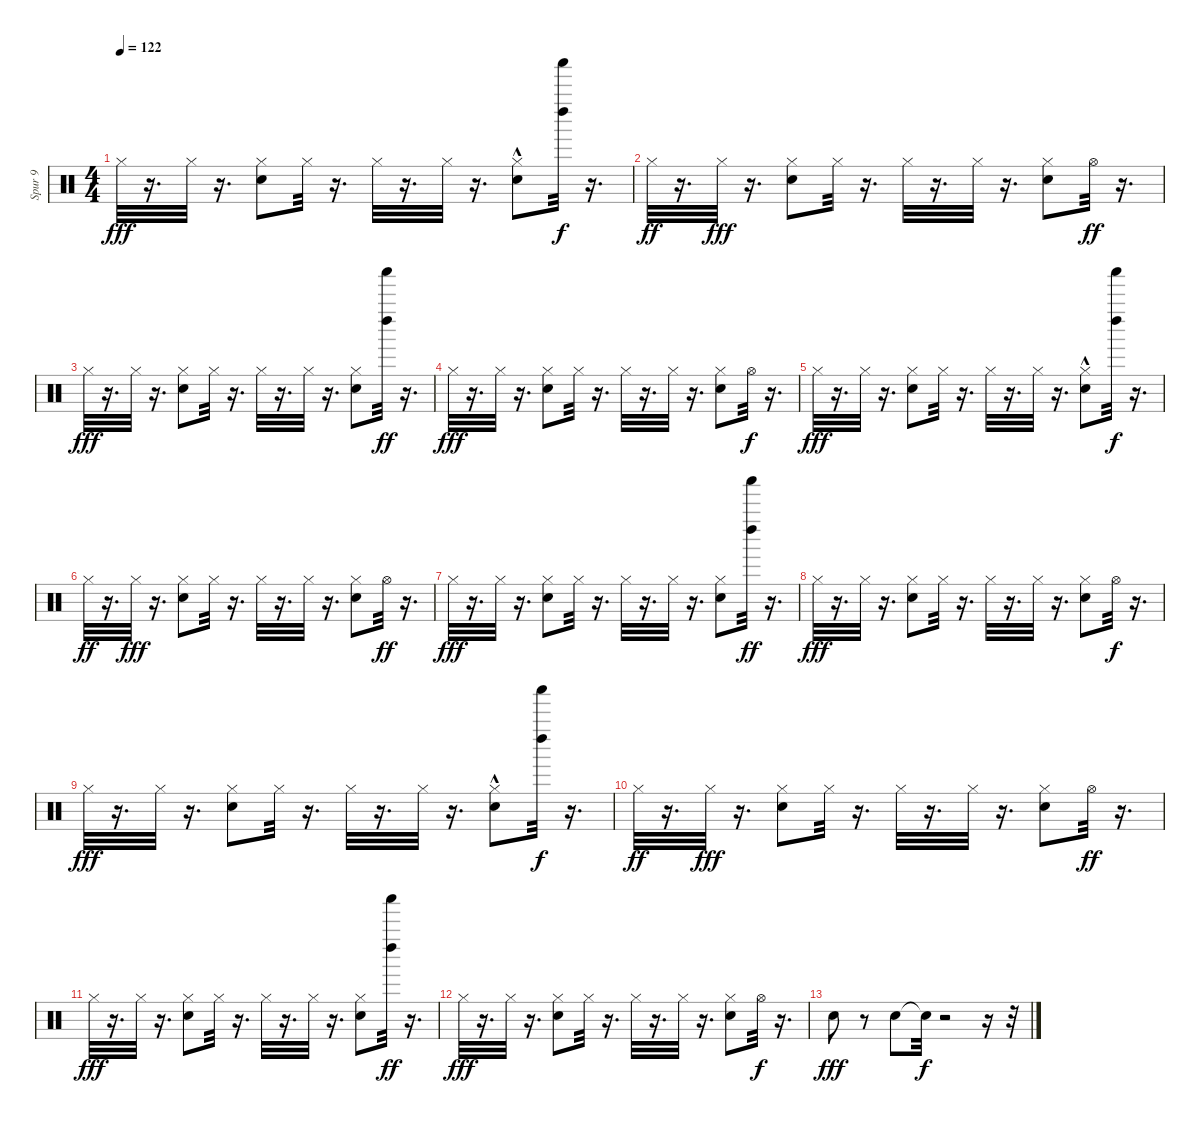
\track ("Spur 9" "Spur 9") {instrument percussion}
\staff {score}
\articulation defaults
\ts (4 4)
\tempo 122
\clef neutral
\ks c "Hi-Hat (closed)".32{dy fff}
r.16{d} "Hi-Hat (closed)".32 r.16{d} ("Hi-Hat (closed)" "Metronome (bell)").8 "Hi-Hat (closed)".32 r.16{d} "Hi-Hat (closed)".32 r.16{d} "Hi-Hat (closed)".32 r.16{d} ("Hi-Hat (closed)" "Metronome (bell)"{hac}).8 ("Shaker (hit)" "Left Maraca (hit)").32{dy f} r.16{d} |
"Hi-Hat (closed)".32{dy ff} r.16{d} "Hi-Hat (closed)".32{dy fff} r.16{d} ("Hi-Hat (closed)" "Metronome (bell)").8 "Hi-Hat (closed)".32 r.16{d} "Hi-Hat (closed)".32 r.16{d} "Hi-Hat (closed)".32 r.16{d} ("Hi-Hat (closed)" "Metronome (bell)").8 "Hi-Hat (open)".32{dy ff} r.16{d} |
"Hi-Hat (closed)".32{dy fff} r.16{d} "Hi-Hat (closed)".32 r.16{d} ("Hi-Hat (closed)" "Metronome (bell)").8 "Hi-Hat (closed)".32 r.16{d} "Hi-Hat (closed)".32 r.16{d} "Hi-Hat (closed)".32 r.16{d} ("Hi-Hat (closed)" "Metronome (bell)").8 ("Shaker (hit)" "Left Maraca (hit)").32{dy ff} r.16{d} |
"Hi-Hat (closed)".32{dy fff} r.16{d} "Hi-Hat (closed)".32 r.16{d} ("Hi-Hat (closed)" "Metronome (bell)").8 "Hi-Hat (closed)".32 r.16{d} "Hi-Hat (closed)".32 r.16{d} "Hi-Hat (closed)".32 r.16{d} ("Hi-Hat (closed)" "Metronome (bell)").8 "Hi-Hat (open)".32{dy f} r.16{d} |
"Hi-Hat (closed)".32{dy fff} r.16{d} "Hi-Hat (closed)".32 r.16{d} ("Hi-Hat (closed)" "Metronome (bell)").8 "Hi-Hat (closed)".32 r.16{d} "Hi-Hat (closed)".32 r.16{d} "Hi-Hat (closed)".32 r.16{d} ("Hi-Hat (closed)" "Metronome (bell)"{hac}).8 ("Shaker (hit)" "Left Maraca (hit)").32{dy f} r.16{d} |
"Hi-Hat (closed)".32{dy ff} r.16{d} "Hi-Hat (closed)".32{dy fff} r.16{d} ("Hi-Hat (closed)" "Metronome (bell)").8 "Hi-Hat (closed)".32 r.16{d} "Hi-Hat (closed)".32 r.16{d} "Hi-Hat (closed)".32 r.16{d} ("Hi-Hat (closed)" "Metronome (bell)").8 "Hi-Hat (open)".32{dy ff} r.16{d} |
"Hi-Hat (closed)".32{dy fff} r.16{d} "Hi-Hat (closed)".32 r.16{d} ("Hi-Hat (closed)" "Metronome (bell)").8 "Hi-Hat (closed)".32 r.16{d} "Hi-Hat (closed)".32 r.16{d} "Hi-Hat (closed)".32 r.16{d} ("Hi-Hat (closed)" "Metronome (bell)").8 ("Shaker (hit)" "Left Maraca (hit)").32{dy ff} r.16{d} |
"Hi-Hat (closed)".32{dy fff} r.16{d} "Hi-Hat (closed)".32 r.16{d} ("Hi-Hat (closed)" "Metronome (bell)").8 "Hi-Hat (closed)".32 r.16{d} "Hi-Hat (closed)".32 r.16{d} "Hi-Hat (closed)".32 r.16{d} ("Hi-Hat (closed)" "Metronome (bell)").8 "Hi-Hat (open)".32{dy f} r.16{d} |
"Hi-Hat (closed)".32{dy fff} r.16{d} "Hi-Hat (closed)".32 r.16{d} ("Hi-Hat (closed)" "Metronome (bell)").8 "Hi-Hat (closed)".32 r.16{d} "Hi-Hat (closed)".32 r.16{d} "Hi-Hat (closed)".32 r.16{d} ("Hi-Hat (closed)" "Metronome (bell)"{hac}).8 ("Shaker (hit)" "Left Maraca (hit)").32{dy f} r.16{d} |
"Hi-Hat (closed)".32{dy ff} r.16{d} "Hi-Hat (closed)".32{dy fff} r.16{d} ("Hi-Hat (closed)" "Metronome (bell)").8 "Hi-Hat (closed)".32 r.16{d} "Hi-Hat (closed)".32 r.16{d} "Hi-Hat (closed)".32 r.16{d} ("Hi-Hat (closed)" "Metronome (bell)").8 "Hi-Hat (open)".32{dy ff} r.16{d} |
"Hi-Hat (closed)".32{dy fff} r.16{d} "Hi-Hat (closed)".32 r.16{d} ("Hi-Hat (closed)" "Metronome (bell)").8 "Hi-Hat (closed)".32 r.16{d} "Hi-Hat (closed)".32 r.16{d} "Hi-Hat (closed)".32 r.16{d} ("Hi-Hat (closed)" "Metronome (bell)").8 ("Shaker (hit)" "Left Maraca (hit)").32{dy ff} r.16{d} |
"Hi-Hat (closed)".32{dy fff} r.16{d} "Hi-Hat (closed)".32 r.16{d} ("Hi-Hat (closed)" "Metronome (bell)").8 "Hi-Hat (closed)".32 r.16{d} "Hi-Hat (closed)".32 r.16{d} "Hi-Hat (closed)".32 r.16{d} ("Hi-Hat (closed)" "Metronome (bell)").8 "Hi-Hat (open)".32{dy f} r.16{d} |
"Metronome (bell)".8{dy fff} r.8 "Metronome (bell)".8 "Snare (hit)"{t}.32{dy f} r.2 r.16 r.32
